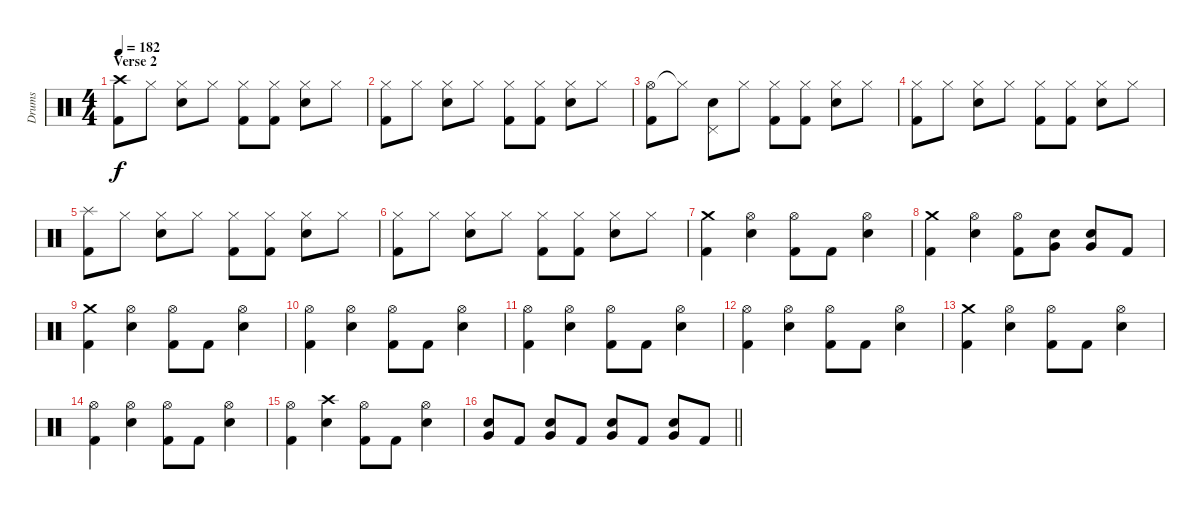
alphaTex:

\track ("Drums" "Drums") {instrument percussion}
\staff {score}
\articulation defaults
\ts (4 4)
\section ("" "Verse 2")
\tempo 182
\clef neutral
\ks c
("Crash high (hit)" "Kick (hit) 2").8{dy f} "Hi-Hat (closed)".8 ("Hi-Hat (closed)" "Electric Snare (hit)").8 "Hi-Hat (closed)".8 ("Hi-Hat (closed)" "Kick (hit) 2").8 ("Hi-Hat (closed)" "Kick (hit) 2").8 ("Hi-Hat (closed)" "Electric Snare (hit)").8 "Hi-Hat (closed)".8 |
("Hi-Hat (closed)" "Kick (hit) 2").8 "Hi-Hat (closed)".8 ("Hi-Hat (closed)" "Electric Snare (hit)").8 "Hi-Hat (closed)".8 ("Hi-Hat (closed)" "Kick (hit) 2").8 ("Hi-Hat (closed)" "Kick (hit) 2").8 ("Hi-Hat (closed)" "Electric Snare (hit)").8 "Hi-Hat (closed)".8 |
("Hi-Hat (open)" "Kick (hit) 2").8 "Hi-Hat (closed)"{t}.8 ("Pedal Hi-Hat (hit)" "Electric Snare (hit)").8 "Hi-Hat (closed)".8 ("Hi-Hat (closed)" "Kick (hit) 2").8 ("Hi-Hat (closed)" "Kick (hit) 2").8 ("Hi-Hat (closed)" "Electric Snare (hit)").8 "Hi-Hat (closed)".8 |
("Hi-Hat (closed)" "Kick (hit) 2").8 "Hi-Hat (closed)".8 ("Hi-Hat (closed)" "Electric Snare (hit)").8 "Hi-Hat (closed)".8 ("Hi-Hat (closed)" "Kick (hit) 2").8 ("Hi-Hat (closed)" "Kick (hit) 2").8 ("Hi-Hat (closed)" "Electric Snare (hit)").8 "Hi-Hat (closed)".8 |
("Splash (hit)" "Kick (hit) 2").8 "Hi-Hat (closed)".8 ("Hi-Hat (closed)" "Electric Snare (hit)").8 "Hi-Hat (closed)".8 ("Hi-Hat (closed)" "Kick (hit) 2").8 ("Hi-Hat (closed)" "Kick (hit) 2").8 ("Hi-Hat (closed)" "Electric Snare (hit)").8 "Hi-Hat (closed)".8 |
("Hi-Hat (closed)" "Kick (hit) 2").8 "Hi-Hat (closed)".8 ("Hi-Hat (closed)" "Electric Snare (hit)").8 "Hi-Hat (closed)".8 ("Hi-Hat (closed)" "Kick (hit) 2").8 ("Hi-Hat (closed)" "Kick (hit) 2").8 ("Hi-Hat (closed)" "Electric Snare (hit)").8 "Hi-Hat (closed)".8 |
("Crash medium (hit)" "Kick (hit) 2").4 ("Hi-Hat (open)" "Electric Snare (hit)").4 ("Hi-Hat (open)" "Kick (hit) 2").8 "Kick (hit) 2".8 ("Hi-Hat (open)" "Electric Snare (hit)").4 |
("Crash medium (hit)" "Kick (hit) 2").4 ("Hi-Hat (open)" "Electric Snare (hit)").4 ("Hi-Hat (open)" "Kick (hit) 2").8 ("Very Low Tom (hit)" "Electric Snare (hit)").8 ("Very Low Tom (hit)" "Electric Snare (hit)").8 "Kick (hit) 2".8 |
("Crash medium (hit)" "Kick (hit) 2").4 ("Hi-Hat (open)" "Electric Snare (hit)").4 ("Hi-Hat (open)" "Kick (hit) 2").8 "Kick (hit) 2".8 ("Hi-Hat (open)" "Electric Snare (hit)").4 |
("Hi-Hat (open)" "Kick (hit) 2").4 ("Hi-Hat (open)" "Electric Snare (hit)").4 ("Hi-Hat (open)" "Kick (hit) 2").8 "Kick (hit) 2".8 ("Hi-Hat (open)" "Electric Snare (hit)").4 |
("Hi-Hat (open)" "Kick (hit) 2").4 ("Hi-Hat (open)" "Electric Snare (hit)").4 ("Hi-Hat (open)" "Kick (hit) 2").8 "Kick (hit) 2".8 ("Hi-Hat (open)" "Electric Snare (hit)").4 |
("Hi-Hat (open)" "Kick (hit) 2").4 ("Hi-Hat (open)" "Electric Snare (hit)").4 ("Hi-Hat (open)" "Kick (hit) 2").8 "Kick (hit) 2".8 ("Hi-Hat (open)" "Electric Snare (hit)").4 |
("Crash medium (hit)" "Kick (hit) 2").4 ("Hi-Hat (open)" "Electric Snare (hit)").4 ("Hi-Hat (open)" "Kick (hit) 2").8 "Kick (hit) 2".8 ("Hi-Hat (open)" "Electric Snare (hit)").4 |
("Hi-Hat (open)" "Kick (hit) 2").4 ("Hi-Hat (open)" "Electric Snare (hit)").4 ("Hi-Hat (open)" "Kick (hit) 2").8 "Kick (hit) 2".8 ("Hi-Hat (open)" "Electric Snare (hit)").4 |
("Hi-Hat (open)" "Kick (hit) 2").4 ("Crash high (hit)" "Electric Snare (hit)").4 ("Hi-Hat (open)" "Kick (hit) 2").8 "Kick (hit) 2".8 ("Hi-Hat (open)" "Electric Snare (hit)").4 |
\barLineRight lightlight
("Very Low Tom (hit)" "Electric Snare (hit)").8 "Kick (hit) 2".8 ("Very Low Tom (hit)" "Electric Snare (hit)").8 "Kick (hit) 2".8 ("Very Low Tom (hit)" "Electric Snare (hit)").8 "Kick (hit) 2".8 ("Very Low Tom (hit)" "Electric Snare (hit)").8 "Kick (hit) 2".8
